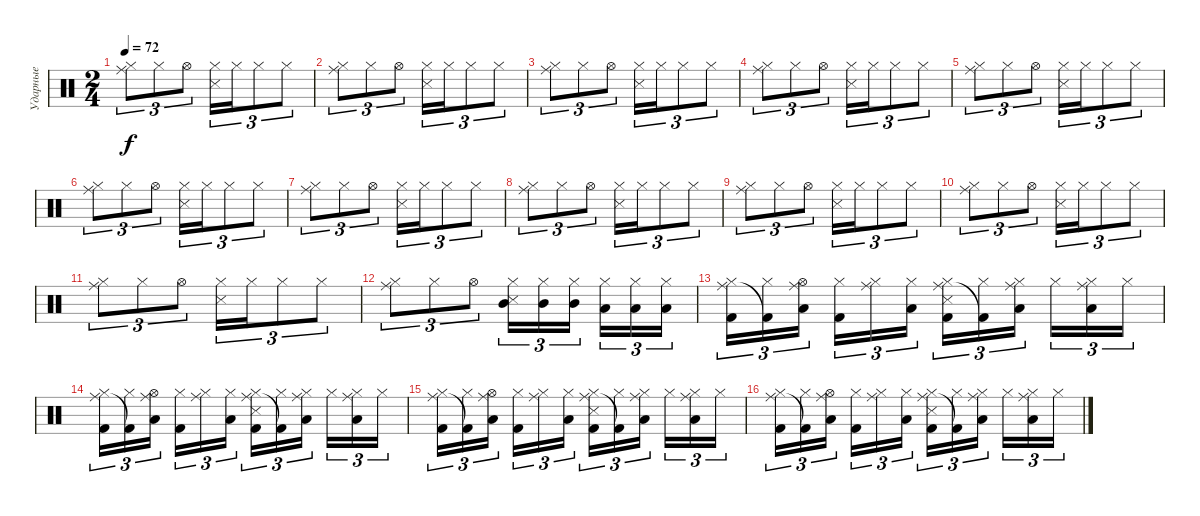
\track ("Ударные" "Ударные") {instrument percussion}
\staff {score}
\articulation defaults
\ts (2 4)
\tempo 72
\clef neutral
\ks c
("Hi-Hat (closed)" "Ride (middle)").8{tu (3 2) dy f} "Hi-Hat (closed)".8{tu (3 2)} "Hi-Hat (open)".8{tu (3 2)} ("Hi-Hat (closed)" "Snare (side stick) 3").16{tu (3 2)} "Hi-Hat (closed)".16{tu (3 2)} "Hi-Hat (closed)".8{tu (3 2)} "Hi-Hat (closed)".8{tu (3 2)} |
("Hi-Hat (closed)" "Ride (middle)").8{tu (3 2)} "Hi-Hat (closed)".8{tu (3 2)} "Hi-Hat (open)".8{tu (3 2)} ("Hi-Hat (closed)" "Snare (side stick) 3").16{tu (3 2)} "Hi-Hat (closed)".16{tu (3 2)} "Hi-Hat (closed)".8{tu (3 2)} "Hi-Hat (closed)".8{tu (3 2)} |
("Hi-Hat (closed)" "Ride (middle)").8{tu (3 2)} "Hi-Hat (closed)".8{tu (3 2)} "Hi-Hat (open)".8{tu (3 2)} ("Hi-Hat (closed)" "Snare (side stick) 3").16{tu (3 2)} "Hi-Hat (closed)".16{tu (3 2)} "Hi-Hat (closed)".8{tu (3 2)} "Hi-Hat (closed)".8{tu (3 2)} |
("Hi-Hat (closed)" "Ride (middle)").8{tu (3 2)} "Hi-Hat (closed)".8{tu (3 2)} "Hi-Hat (open)".8{tu (3 2)} ("Hi-Hat (closed)" "Snare (side stick) 3").16{tu (3 2)} "Hi-Hat (closed)".16{tu (3 2)} "Hi-Hat (closed)".8{tu (3 2)} "Hi-Hat (closed)".8{tu (3 2)} |
("Hi-Hat (closed)" "Ride (middle)").8{tu (3 2)} "Hi-Hat (closed)".8{tu (3 2)} "Hi-Hat (open)".8{tu (3 2)} ("Hi-Hat (closed)" "Snare (side stick) 3").16{tu (3 2)} "Hi-Hat (closed)".16{tu (3 2)} "Hi-Hat (closed)".8{tu (3 2)} "Hi-Hat (closed)".8{tu (3 2)} |
("Hi-Hat (closed)" "Ride (middle)").8{tu (3 2)} "Hi-Hat (closed)".8{tu (3 2)} "Hi-Hat (open)".8{tu (3 2)} ("Hi-Hat (closed)" "Snare (side stick) 3").16{tu (3 2)} "Hi-Hat (closed)".16{tu (3 2)} "Hi-Hat (closed)".8{tu (3 2)} "Hi-Hat (closed)".8{tu (3 2)} |
("Hi-Hat (closed)" "Ride (middle)").8{tu (3 2)} "Hi-Hat (closed)".8{tu (3 2)} "Hi-Hat (open)".8{tu (3 2)} ("Hi-Hat (closed)" "Snare (side stick) 3").16{tu (3 2)} "Hi-Hat (closed)".16{tu (3 2)} "Hi-Hat (closed)".8{tu (3 2)} "Hi-Hat (closed)".8{tu (3 2)} |
("Hi-Hat (closed)" "Ride (middle)").8{tu (3 2)} "Hi-Hat (closed)".8{tu (3 2)} "Hi-Hat (open)".8{tu (3 2)} ("Hi-Hat (closed)" "Snare (side stick) 3").16{tu (3 2)} "Hi-Hat (closed)".16{tu (3 2)} "Hi-Hat (closed)".8{tu (3 2)} "Hi-Hat (closed)".8{tu (3 2)} |
("Hi-Hat (closed)" "Ride (middle)").8{tu (3 2)} "Hi-Hat (closed)".8{tu (3 2)} "Hi-Hat (open)".8{tu (3 2)} ("Hi-Hat (closed)" "Snare (side stick) 3").16{tu (3 2)} "Hi-Hat (closed)".16{tu (3 2)} "Hi-Hat (closed)".8{tu (3 2)} "Hi-Hat (closed)".8{tu (3 2)} |
("Hi-Hat (closed)" "Ride (middle)").8{tu (3 2)} "Hi-Hat (closed)".8{tu (3 2)} "Hi-Hat (open)".8{tu (3 2)} ("Hi-Hat (closed)" "Snare (side stick) 3").16{tu (3 2)} "Hi-Hat (closed)".16{tu (3 2)} "Hi-Hat (closed)".8{tu (3 2)} "Hi-Hat (closed)".8{tu (3 2)} |
("Hi-Hat (closed)" "Ride (middle)").8{tu (3 2)} "Hi-Hat (closed)".8{tu (3 2)} "Hi-Hat (open)".8{tu (3 2)} ("Hi-Hat (closed)" "Snare (side stick) 3").16{tu (3 2)} "Hi-Hat (closed)".16{tu (3 2)} "Hi-Hat (closed)".8{tu (3 2)} "Hi-Hat (closed)".8{tu (3 2)} |
("Hi-Hat (closed)" "Ride (middle)").8{tu (3 2)} "Hi-Hat (closed)".8{tu (3 2)} "Hi-Hat (open)".8{tu (3 2)} ("Hi-Hat (closed)" "Snare (side stick) 3" "Mid Tom (hit)").16{tu (3 2)} ("Hi-Hat (closed)" "Mid Tom (hit)").16{tu (3 2)} ("Hi-Hat (closed)" "Mid Tom (hit)").16{tu (3 2)} ("Hi-Hat (closed)" "Low Tom (hit)").16{tu (3 2)} ("Hi-Hat (closed)" "Low Tom (hit)").16{tu (3 2)} ("Hi-Hat (closed)" "Low Tom (hit)").16{tu (3 2)} |
("Hi-Hat (closed)" "Ride (middle)" "Kick (hit) 2").16{tu (3 2)} ("Hi-Hat (closed)" "Kick (hit) 2"{t}).16{tu (3 2)} ("Hi-Hat (open)" "Ride (middle)" "Low Tom (hit)").16{tu (3 2)} ("Hi-Hat (closed)" "Kick (hit) 2").16{tu (3 2)} ("Hi-Hat (closed)" "Ride (middle)").16{tu (3 2)} ("Hi-Hat (closed)" "Low Tom (hit)").16{tu (3 2)} ("Hi-Hat (closed)" "Ride (middle)" "Snare (side stick) 3" "Kick (hit) 2").16{tu (3 2)} ("Hi-Hat (closed)" "Kick (hit) 2"{t}).16{tu (3 2)} ("Hi-Hat (closed)" "Ride (middle)" "Low Tom (hit)").16{tu (3 2)} "Hi-Hat (closed)".16{tu (3 2)} ("Hi-Hat (closed)" "Ride (middle)" "Low Tom (hit)").16{tu (3 2)} "Hi-Hat (closed)".16{tu (3 2)} |
("Hi-Hat (closed)" "Ride (middle)" "Kick (hit) 2").16{tu (3 2)} ("Hi-Hat (closed)" "Kick (hit) 2"{t}).16{tu (3 2)} ("Hi-Hat (open)" "Ride (middle)" "Low Tom (hit)").16{tu (3 2)} ("Hi-Hat (closed)" "Kick (hit) 2").16{tu (3 2)} ("Hi-Hat (closed)" "Ride (middle)").16{tu (3 2)} ("Hi-Hat (closed)" "Low Tom (hit)").16{tu (3 2)} ("Hi-Hat (closed)" "Ride (middle)" "Snare (side stick) 3" "Kick (hit) 2").16{tu (3 2)} ("Hi-Hat (closed)" "Kick (hit) 2"{t}).16{tu (3 2)} ("Hi-Hat (closed)" "Ride (middle)" "Low Tom (hit)").16{tu (3 2)} "Hi-Hat (closed)".16{tu (3 2)} ("Hi-Hat (closed)" "Ride (middle)" "Low Tom (hit)").16{tu (3 2)} "Hi-Hat (closed)".16{tu (3 2)} |
("Hi-Hat (closed)" "Ride (middle)" "Kick (hit) 2").16{tu (3 2)} ("Hi-Hat (closed)" "Kick (hit) 2"{t}).16{tu (3 2)} ("Hi-Hat (open)" "Ride (middle)" "Low Tom (hit)").16{tu (3 2)} ("Hi-Hat (closed)" "Kick (hit) 2").16{tu (3 2)} ("Hi-Hat (closed)" "Ride (middle)").16{tu (3 2)} ("Hi-Hat (closed)" "Low Tom (hit)").16{tu (3 2)} ("Hi-Hat (closed)" "Ride (middle)" "Snare (side stick) 3" "Kick (hit) 2").16{tu (3 2)} ("Hi-Hat (closed)" "Kick (hit) 2"{t}).16{tu (3 2)} ("Hi-Hat (closed)" "Ride (middle)" "Low Tom (hit)").16{tu (3 2)} "Hi-Hat (closed)".16{tu (3 2)} ("Hi-Hat (closed)" "Ride (middle)" "Low Tom (hit)").16{tu (3 2)} "Hi-Hat (closed)".16{tu (3 2)} |
("Hi-Hat (closed)" "Ride (middle)" "Kick (hit) 2").16{tu (3 2)} ("Hi-Hat (closed)" "Kick (hit) 2"{t}).16{tu (3 2)} ("Hi-Hat (open)" "Ride (middle)" "Low Tom (hit)").16{tu (3 2)} ("Hi-Hat (closed)" "Kick (hit) 2").16{tu (3 2)} ("Hi-Hat (closed)" "Ride (middle)").16{tu (3 2)} ("Hi-Hat (closed)" "Low Tom (hit)").16{tu (3 2)} ("Hi-Hat (closed)" "Ride (middle)" "Snare (side stick) 3" "Kick (hit) 2").16{tu (3 2)} ("Hi-Hat (closed)" "Kick (hit) 2"{t}).16{tu (3 2)} ("Hi-Hat (closed)" "Ride (middle)" "Low Tom (hit)").16{tu (3 2)} "Hi-Hat (closed)".16{tu (3 2)} ("Hi-Hat (closed)" "Ride (middle)" "Low Tom (hit)").16{tu (3 2)} "Hi-Hat (closed)".16{tu (3 2)}
